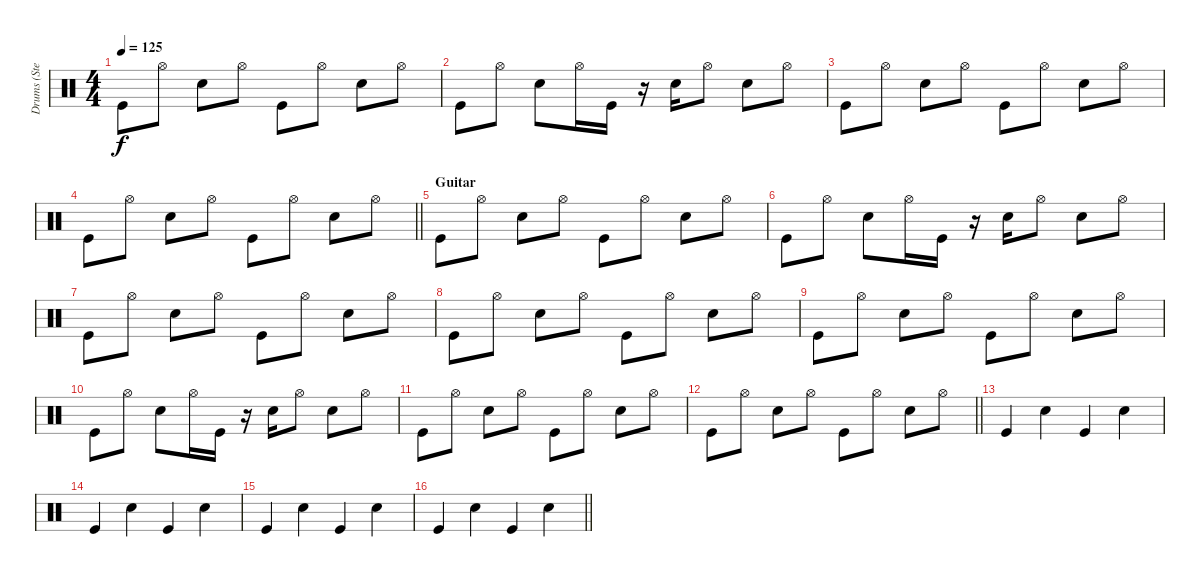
\track ("Drums (Stephen Morris)" "Drums (Ste") {instrument percussion}
\staff {score}
\articulation defaults
\ts (4 4)
\tempo 125
\clef neutral
\ks c "Kick (hit)".8{dy f} "Hi-Hat (open)".8 "Electric Snare (hit)".8 "Hi-Hat (open)".8 "Kick (hit)".8 "Hi-Hat (open)".8 "Electric Snare (hit)".8 "Hi-Hat (open)".8
|
"Kick (hit)".8 "Hi-Hat (open)".8 "Electric Snare (hit)".8 "Hi-Hat (open)".16 "Kick (hit)".16 r.16 "Electric Snare (hit)".16 "Hi-Hat (open)".8 "Electric Snare (hit)".8 "Hi-Hat (open)".8 |
"Kick (hit)".8 "Hi-Hat (open)".8 "Electric Snare (hit)".8 "Hi-Hat (open)".8 "Kick (hit)".8 "Hi-Hat (open)".8 "Electric Snare (hit)".8 "Hi-Hat (open)".8 |
\barLineRight lightlight "Kick (hit)".8 "Hi-Hat (open)".8 "Electric Snare (hit)".8 "Hi-Hat (open)".8 "Kick (hit)".8 "Hi-Hat (open)".8 "Electric Snare (hit)".8 "Hi-Hat (open)".8
|
\section ("" "Guitar")
"Kick (hit)".8 "Hi-Hat (open)".8 "Electric Snare (hit)".8 "Hi-Hat (open)".8 "Kick (hit)".8 "Hi-Hat (open)".8 "Electric Snare (hit)".8 "Hi-Hat (open)".8 |
"Kick (hit)".8 "Hi-Hat (open)".8 "Electric Snare (hit)".8 "Hi-Hat (open)".16 "Kick (hit)".16 r.16 "Electric Snare (hit)".16 "Hi-Hat (open)".8 "Electric Snare (hit)".8 "Hi-Hat (open)".8 |
"Kick (hit)".8 "Hi-Hat (open)".8 "Electric Snare (hit)".8 "Hi-Hat (open)".8 "Kick (hit)".8 "Hi-Hat (open)".8 "Electric Snare (hit)".8 "Hi-Hat (open)".8 |
"Kick (hit)".8 "Hi-Hat (open)".8 "Electric Snare (hit)".8 "Hi-Hat (open)".8 "Kick (hit)".8 "Hi-Hat (open)".8 "Electric Snare (hit)".8 "Hi-Hat (open)".8 |
"Kick (hit)".8 "Hi-Hat (open)".8 "Electric Snare (hit)".8 "Hi-Hat (open)".8 "Kick (hit)".8 "Hi-Hat (open)".8 "Electric Snare (hit)".8 "Hi-Hat (open)".8 |
"Kick (hit)".8 "Hi-Hat (open)".8 "Electric Snare (hit)".8 "Hi-Hat (open)".16 "Kick (hit)".16 r.16 "Electric Snare (hit)".16 "Hi-Hat (open)".8 "Electric Snare (hit)".8 "Hi-Hat (open)".8 |
"Kick (hit)".8 "Hi-Hat (open)".8 "Electric Snare (hit)".8 "Hi-Hat (open)".8 "Kick (hit)".8 "Hi-Hat (open)".8 "Electric Snare (hit)".8 "Hi-Hat (open)".8 |
\barLineRight lightlight "Kick (hit)".8 "Hi-Hat (open)".8 "Electric Snare (hit)".8 "Hi-Hat (open)".8 "Kick (hit)".8 "Hi-Hat (open)".8 "Electric Snare (hit)".8 "Hi-Hat (open)".8
|
"Kick (hit)".4 "Electric Snare (hit)".4 "Kick (hit)".4 "Electric Snare (hit)".4 |
"Kick (hit)".4 "Electric Snare (hit)".4 "Kick (hit)".4 "Electric Snare (hit)".4 |
"Kick (hit)".4 "Electric Snare (hit)".4 "Kick (hit)".4 "Electric Snare (hit)".4 |
\barLineRight lightlight "Kick (hit)".4 "Electric Snare (hit)".4 "Kick (hit)".4 "Electric Snare (hit)".4
